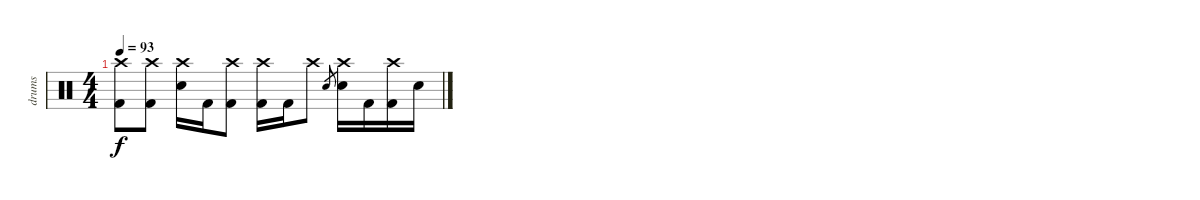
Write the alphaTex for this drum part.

\track ("drums" "drums") {instrument percussion}
\staff {score}
\articulation defaults
\ts (4 4)
\tempo 93
\clef neutral
\ks c
("Crash high (hit)" "Kick (hit) 2").8{dy f} ("Crash high (hit)" "Kick (hit) 2").8 ("Crash high (hit)" "Electric Snare (hit)").16 "Kick (hit) 2".16 ("Crash high (hit)" "Kick (hit) 2").8 ("Crash high (hit)" "Kick (hit) 2").16 "Kick (hit) 2".16 "Crash high (hit)".8 "Electric Snare (hit)".8{gr} ("Crash high (hit)" "Electric Snare (hit)").16 "Kick (hit) 2".16 ("Crash high (hit)" "Kick (hit) 2").16 "Electric Snare (hit)".16
